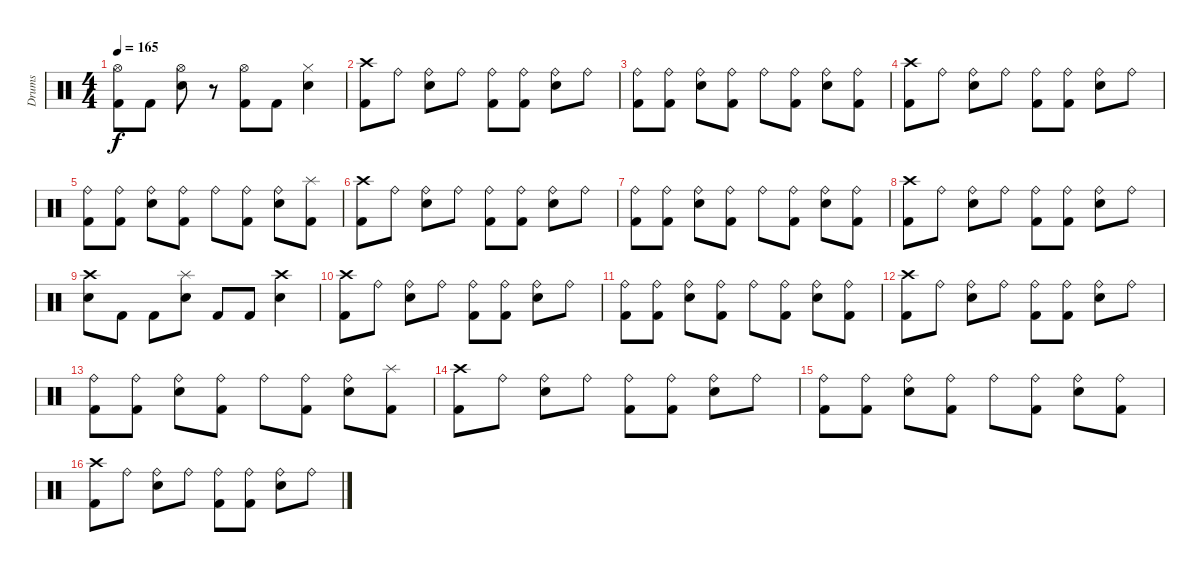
\track ("Drums" "Drums") {instrument percussion}
\staff {score}
\articulation defaults
\ts (4 4)
\tempo 165
\clef neutral
\ks c
("Hi-Hat (open)" "Kick (hit) 2").8{dy f} "Kick (hit) 2".8 ("Hi-Hat (open)" "Snare (hit) 2").8 r.8 ("Hi-Hat (open)" "Kick (hit) 2").8 "Kick (hit) 2".8 ("Hi-Hat (closed)" "Snare (hit) 2").4 |
("Crash high (hit)" "Kick (hit) 2").8 "Ride (bell)".8 ("Ride (bell)" "Snare (hit) 2").8 "Ride (bell)".8 ("Ride (bell)" "Kick (hit) 2").8 ("Ride (bell)" "Kick (hit) 2").8 ("Ride (bell)" "Snare (hit) 2").8 "Ride (bell)".8 |
("Ride (bell)" "Kick (hit) 2").8 ("Ride (bell)" "Kick (hit) 2").8 ("Ride (bell)" "Snare (hit) 2").8 ("Ride (bell)" "Kick (hit) 2").8 "Ride (bell)".8 ("Ride (bell)" "Kick (hit) 2").8 ("Ride (bell)" "Snare (hit) 2").8 ("Ride (bell)" "Kick (hit) 2").8 |
("Crash high (hit)" "Kick (hit) 2").8 "Ride (bell)".8 ("Ride (bell)" "Snare (hit) 2").8 "Ride (bell)".8 ("Ride (bell)" "Kick (hit) 2").8 ("Ride (bell)" "Kick (hit) 2").8 ("Ride (bell)" "Snare (hit) 2").8 "Ride (bell)".8 |
("Ride (bell)" "Kick (hit) 2").8 ("Ride (bell)" "Kick (hit) 2").8 ("Ride (bell)" "Snare (hit) 2").8 ("Ride (bell)" "Kick (hit) 2").8 "Ride (bell)".8 ("Ride (bell)" "Kick (hit) 2").8 ("Ride (bell)" "Snare (hit) 2").8 ("Splash (hit)" "Kick (hit) 2").8 |
("Crash high (hit)" "Kick (hit) 2").8 "Ride (bell)".8 ("Ride (bell)" "Snare (hit) 2").8 "Ride (bell)".8 ("Ride (bell)" "Kick (hit) 2").8 ("Ride (bell)" "Kick (hit) 2").8 ("Ride (bell)" "Snare (hit) 2").8 "Ride (bell)".8 |
("Ride (bell)" "Kick (hit) 2").8 ("Ride (bell)" "Kick (hit) 2").8 ("Ride (bell)" "Snare (hit) 2").8 ("Ride (bell)" "Kick (hit) 2").8 "Ride (bell)".8 ("Ride (bell)" "Kick (hit) 2").8 ("Ride (bell)" "Snare (hit) 2").8 ("Ride (bell)" "Kick (hit) 2").8 |
("Crash high (hit)" "Kick (hit) 2").8 "Ride (bell)".8 ("Ride (bell)" "Snare (hit) 2").8 "Ride (bell)".8 ("Ride (bell)" "Kick (hit) 2").8 ("Ride (bell)" "Kick (hit) 2").8 ("Ride (bell)" "Snare (hit) 2").8 "Ride (bell)".8 |
("Crash high (hit)" "Snare (hit) 2").8 "Kick (hit) 2".8 "Kick (hit) 2".8 ("Splash (hit)" "Snare (hit) 2").8 "Kick (hit) 2".8 "Kick (hit) 2".8 ("Crash high (hit)" "Snare (hit) 2").4 |
("Crash high (hit)" "Kick (hit) 2").8 "Ride (bell)".8 ("Ride (bell)" "Snare (hit) 2").8 "Ride (bell)".8 ("Ride (bell)" "Kick (hit) 2").8 ("Ride (bell)" "Kick (hit) 2").8 ("Ride (bell)" "Snare (hit) 2").8 "Ride (bell)".8 |
("Ride (bell)" "Kick (hit) 2").8 ("Ride (bell)" "Kick (hit) 2").8 ("Ride (bell)" "Snare (hit) 2").8 ("Ride (bell)" "Kick (hit) 2").8 "Ride (bell)".8 ("Ride (bell)" "Kick (hit) 2").8 ("Ride (bell)" "Snare (hit) 2").8 ("Ride (bell)" "Kick (hit) 2").8 |
("Crash high (hit)" "Kick (hit) 2").8 "Ride (bell)".8 ("Ride (bell)" "Snare (hit) 2").8 "Ride (bell)".8 ("Ride (bell)" "Kick (hit) 2").8 ("Ride (bell)" "Kick (hit) 2").8 ("Ride (bell)" "Snare (hit) 2").8 "Ride (bell)".8 |
("Ride (bell)" "Kick (hit) 2").8 ("Ride (bell)" "Kick (hit) 2").8 ("Ride (bell)" "Snare (hit) 2").8 ("Ride (bell)" "Kick (hit) 2").8 "Ride (bell)".8 ("Ride (bell)" "Kick (hit) 2").8 ("Ride (bell)" "Snare (hit) 2").8 ("Splash (hit)" "Kick (hit) 2").8 |
("Crash high (hit)" "Kick (hit) 2").8 "Ride (bell)".8 ("Ride (bell)" "Snare (hit) 2").8 "Ride (bell)".8 ("Ride (bell)" "Kick (hit) 2").8 ("Ride (bell)" "Kick (hit) 2").8 ("Ride (bell)" "Snare (hit) 2").8 "Ride (bell)".8 |
("Ride (bell)" "Kick (hit) 2").8 ("Ride (bell)" "Kick (hit) 2").8 ("Ride (bell)" "Snare (hit) 2").8 ("Ride (bell)" "Kick (hit) 2").8 "Ride (bell)".8 ("Ride (bell)" "Kick (hit) 2").8 ("Ride (bell)" "Snare (hit) 2").8 ("Ride (bell)" "Kick (hit) 2").8 |
("Crash high (hit)" "Kick (hit) 2").8 "Ride (bell)".8 ("Ride (bell)" "Snare (hit) 2").8 "Ride (bell)".8 ("Ride (bell)" "Kick (hit) 2").8 ("Ride (bell)" "Kick (hit) 2").8 ("Ride (bell)" "Snare (hit) 2").8 "Ride (bell)".8
